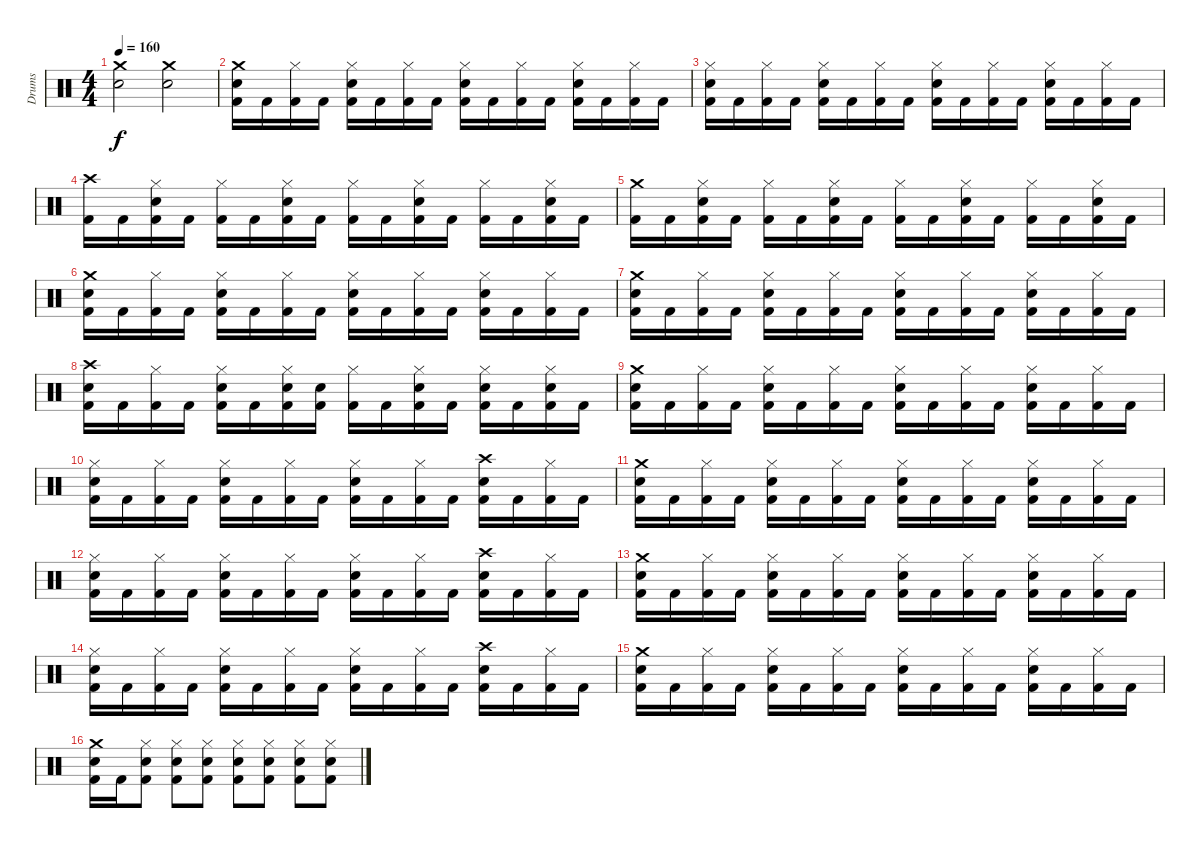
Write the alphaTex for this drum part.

\track ("Drums" "Drums") {instrument percussion}
\staff {score}
\articulation defaults
\ts (4 4)
\tempo 160
\clef neutral
\ks c
("Crash medium (hit)" "Snare (hit) 2").2{dy f} ("Crash medium (hit)" "Snare (hit) 2").2 |
("Crash medium (hit)" "Snare (hit) 2" "Kick (hit) 2").16 "Kick (hit) 2".16 ("Hi-Hat (closed)" "Kick (hit) 2").16 "Kick (hit) 2".16 ("Hi-Hat (closed)" "Snare (hit) 2" "Kick (hit) 2").16 "Kick (hit) 2".16 ("Hi-Hat (closed)" "Kick (hit) 2").16 "Kick (hit) 2".16 ("Hi-Hat (closed)" "Snare (hit) 2" "Kick (hit) 2").16 "Kick (hit) 2".16 ("Hi-Hat (closed)" "Kick (hit) 2").16 "Kick (hit) 2".16 ("Hi-Hat (closed)" "Snare (hit) 2" "Kick (hit) 2").16 "Kick (hit) 2".16 ("Hi-Hat (closed)" "Kick (hit) 2").16 "Kick (hit) 2".16 |
("Hi-Hat (closed)" "Snare (hit) 2" "Kick (hit) 2").16 "Kick (hit) 2".16 ("Hi-Hat (closed)" "Kick (hit) 2").16 "Kick (hit) 2".16 ("Hi-Hat (closed)" "Snare (hit) 2" "Kick (hit) 2").16 "Kick (hit) 2".16 ("Hi-Hat (closed)" "Kick (hit) 2").16 "Kick (hit) 2".16 ("Hi-Hat (closed)" "Snare (hit) 2" "Kick (hit) 2").16 "Kick (hit) 2".16 ("Hi-Hat (closed)" "Kick (hit) 2").16 "Kick (hit) 2".16 ("Hi-Hat (closed)" "Snare (hit) 2" "Kick (hit) 2").16 "Kick (hit) 2".16 ("Hi-Hat (closed)" "Kick (hit) 2").16 "Kick (hit) 2".16 |
("Crash high (hit)" "Kick (hit) 2").16 "Kick (hit) 2".16 ("Hi-Hat (closed)" "Snare (hit) 2" "Kick (hit) 2").16 "Kick (hit) 2".16 ("Hi-Hat (closed)" "Kick (hit) 2").16 "Kick (hit) 2".16 ("Hi-Hat (closed)" "Snare (hit) 2" "Kick (hit) 2").16 "Kick (hit) 2".16 ("Hi-Hat (closed)" "Kick (hit) 2").16 "Kick (hit) 2".16 ("Hi-Hat (closed)" "Snare (hit) 2" "Kick (hit) 2").16 "Kick (hit) 2".16 ("Hi-Hat (closed)" "Kick (hit) 2").16 "Kick (hit) 2".16 ("Hi-Hat (closed)" "Snare (hit) 2" "Kick (hit) 2").16 "Kick (hit) 2".16 |
("Crash medium (hit)" "Kick (hit) 2").16 "Kick (hit) 2".16 ("Hi-Hat (closed)" "Snare (hit) 2" "Kick (hit) 2").16 "Kick (hit) 2".16 ("Hi-Hat (closed)" "Kick (hit) 2").16 "Kick (hit) 2".16 ("Hi-Hat (closed)" "Snare (hit) 2" "Kick (hit) 2").16 "Kick (hit) 2".16 ("Hi-Hat (closed)" "Kick (hit) 2").16 "Kick (hit) 2".16 ("Hi-Hat (closed)" "Snare (hit) 2" "Kick (hit) 2").16 "Kick (hit) 2".16 ("Hi-Hat (closed)" "Kick (hit) 2").16 "Kick (hit) 2".16 ("Hi-Hat (closed)" "Snare (hit) 2" "Kick (hit) 2").16 "Kick (hit) 2".16 |
("Crash medium (hit)" "Snare (hit) 2" "Kick (hit) 2").16 "Kick (hit) 2".16 ("Hi-Hat (closed)" "Kick (hit) 2").16 "Kick (hit) 2".16 ("Hi-Hat (closed)" "Snare (hit) 2" "Kick (hit) 2").16 "Kick (hit) 2".16 ("Hi-Hat (closed)" "Kick (hit) 2").16 "Kick (hit) 2".16 ("Hi-Hat (closed)" "Snare (hit) 2" "Kick (hit) 2").16 "Kick (hit) 2".16 ("Hi-Hat (closed)" "Kick (hit) 2").16 "Kick (hit) 2".16 ("Hi-Hat (closed)" "Snare (hit) 2" "Kick (hit) 2").16 "Kick (hit) 2".16 ("Hi-Hat (closed)" "Kick (hit) 2").16 "Kick (hit) 2".16 |
("Crash medium (hit)" "Snare (hit) 2" "Kick (hit) 2").16 "Kick (hit) 2".16 ("Hi-Hat (closed)" "Kick (hit) 2").16 "Kick (hit) 2".16 ("Hi-Hat (closed)" "Snare (hit) 2" "Kick (hit) 2").16 "Kick (hit) 2".16 ("Hi-Hat (closed)" "Kick (hit) 2").16 "Kick (hit) 2".16 ("Hi-Hat (closed)" "Snare (hit) 2" "Kick (hit) 2").16 "Kick (hit) 2".16 ("Hi-Hat (closed)" "Kick (hit) 2").16 "Kick (hit) 2".16 ("Hi-Hat (closed)" "Snare (hit) 2" "Kick (hit) 2").16 "Kick (hit) 2".16 ("Hi-Hat (closed)" "Kick (hit) 2").16 "Kick (hit) 2".16 |
("Crash high (hit)" "Snare (hit) 2" "Kick (hit) 2").16 "Kick (hit) 2".16 ("Hi-Hat (closed)" "Kick (hit) 2").16 "Kick (hit) 2".16 ("Hi-Hat (closed)" "Snare (hit) 2" "Kick (hit) 2").16 "Kick (hit) 2".16 ("Hi-Hat (closed)" "Snare (hit) 2" "Kick (hit) 2").16 ("Snare (hit) 2" "Kick (hit) 2").16 ("Hi-Hat (closed)" "Kick (hit) 2").16 "Kick (hit) 2".16 ("Hi-Hat (closed)" "Snare (hit) 2" "Kick (hit) 2").16 "Kick (hit) 2".16 ("Hi-Hat (closed)" "Snare (hit) 2" "Kick (hit) 2").16 "Kick (hit) 2".16 ("Hi-Hat (closed)" "Snare (hit) 2" "Kick (hit) 2").16 "Kick (hit) 2".16 |
("Crash medium (hit)" "Snare (hit) 2" "Kick (hit) 2").16 "Kick (hit) 2".16 ("Hi-Hat (closed)" "Kick (hit) 2").16 "Kick (hit) 2".16 ("Hi-Hat (closed)" "Snare (hit) 2" "Kick (hit) 2").16 "Kick (hit) 2".16 ("Hi-Hat (closed)" "Kick (hit) 2").16 "Kick (hit) 2".16 ("Hi-Hat (closed)" "Snare (hit) 2" "Kick (hit) 2").16 "Kick (hit) 2".16 ("Hi-Hat (closed)" "Kick (hit) 2").16 "Kick (hit) 2".16 ("Hi-Hat (closed)" "Snare (hit) 2" "Kick (hit) 2").16 "Kick (hit) 2".16 ("Hi-Hat (closed)" "Kick (hit) 2").16 "Kick (hit) 2".16 |
("Hi-Hat (closed)" "Snare (hit) 2" "Kick (hit) 2").16 "Kick (hit) 2".16 ("Hi-Hat (closed)" "Kick (hit) 2").16 "Kick (hit) 2".16 ("Hi-Hat (closed)" "Snare (hit) 2" "Kick (hit) 2").16 "Kick (hit) 2".16 ("Hi-Hat (closed)" "Kick (hit) 2").16 "Kick (hit) 2".16 ("Hi-Hat (closed)" "Snare (hit) 2" "Kick (hit) 2").16 "Kick (hit) 2".16 ("Hi-Hat (closed)" "Kick (hit) 2").16 "Kick (hit) 2".16 ("Crash high (hit)" "Snare (hit) 2" "Kick (hit) 2").16 "Kick (hit) 2".16 ("Hi-Hat (closed)" "Kick (hit) 2").16 "Kick (hit) 2".16 |
("Crash medium (hit)" "Snare (hit) 2" "Kick (hit) 2").16 "Kick (hit) 2".16 ("Hi-Hat (closed)" "Kick (hit) 2").16 "Kick (hit) 2".16 ("Hi-Hat (closed)" "Snare (hit) 2" "Kick (hit) 2").16 "Kick (hit) 2".16 ("Hi-Hat (closed)" "Kick (hit) 2").16 "Kick (hit) 2".16 ("Hi-Hat (closed)" "Snare (hit) 2" "Kick (hit) 2").16 "Kick (hit) 2".16 ("Hi-Hat (closed)" "Kick (hit) 2").16 "Kick (hit) 2".16 ("Hi-Hat (closed)" "Snare (hit) 2" "Kick (hit) 2").16 "Kick (hit) 2".16 ("Hi-Hat (closed)" "Kick (hit) 2").16 "Kick (hit) 2".16 |
("Hi-Hat (closed)" "Snare (hit) 2" "Kick (hit) 2").16 "Kick (hit) 2".16 ("Hi-Hat (closed)" "Kick (hit) 2").16 "Kick (hit) 2".16 ("Hi-Hat (closed)" "Snare (hit) 2" "Kick (hit) 2").16 "Kick (hit) 2".16 ("Hi-Hat (closed)" "Kick (hit) 2").16 "Kick (hit) 2".16 ("Hi-Hat (closed)" "Snare (hit) 2" "Kick (hit) 2").16 "Kick (hit) 2".16 ("Hi-Hat (closed)" "Kick (hit) 2").16 "Kick (hit) 2".16 ("Crash high (hit)" "Snare (hit) 2" "Kick (hit) 2").16 "Kick (hit) 2".16 ("Hi-Hat (closed)" "Kick (hit) 2").16 "Kick (hit) 2".16 |
("Crash medium (hit)" "Snare (hit) 2" "Kick (hit) 2").16 "Kick (hit) 2".16 ("Hi-Hat (closed)" "Kick (hit) 2").16 "Kick (hit) 2".16 ("Hi-Hat (closed)" "Snare (hit) 2" "Kick (hit) 2").16 "Kick (hit) 2".16 ("Hi-Hat (closed)" "Kick (hit) 2").16 "Kick (hit) 2".16 ("Hi-Hat (closed)" "Snare (hit) 2" "Kick (hit) 2").16 "Kick (hit) 2".16 ("Hi-Hat (closed)" "Kick (hit) 2").16 "Kick (hit) 2".16 ("Hi-Hat (closed)" "Snare (hit) 2" "Kick (hit) 2").16 "Kick (hit) 2".16 ("Hi-Hat (closed)" "Kick (hit) 2").16 "Kick (hit) 2".16 |
("Hi-Hat (closed)" "Snare (hit) 2" "Kick (hit) 2").16 "Kick (hit) 2".16 ("Hi-Hat (closed)" "Kick (hit) 2").16 "Kick (hit) 2".16 ("Hi-Hat (closed)" "Snare (hit) 2" "Kick (hit) 2").16 "Kick (hit) 2".16 ("Hi-Hat (closed)" "Kick (hit) 2").16 "Kick (hit) 2".16 ("Hi-Hat (closed)" "Snare (hit) 2" "Kick (hit) 2").16 "Kick (hit) 2".16 ("Hi-Hat (closed)" "Kick (hit) 2").16 "Kick (hit) 2".16 ("Crash high (hit)" "Snare (hit) 2" "Kick (hit) 2").16 "Kick (hit) 2".16 ("Hi-Hat (closed)" "Kick (hit) 2").16 "Kick (hit) 2".16 |
("Crash medium (hit)" "Snare (hit) 2" "Kick (hit) 2").16 "Kick (hit) 2".16 ("Hi-Hat (closed)" "Kick (hit) 2").16 "Kick (hit) 2".16 ("Hi-Hat (closed)" "Snare (hit) 2" "Kick (hit) 2").16 "Kick (hit) 2".16 ("Hi-Hat (closed)" "Kick (hit) 2").16 "Kick (hit) 2".16 ("Hi-Hat (closed)" "Snare (hit) 2" "Kick (hit) 2").16 "Kick (hit) 2".16 ("Hi-Hat (closed)" "Kick (hit) 2").16 "Kick (hit) 2".16 ("Hi-Hat (closed)" "Snare (hit) 2" "Kick (hit) 2").16 "Kick (hit) 2".16 ("Hi-Hat (closed)" "Kick (hit) 2").16 "Kick (hit) 2".16 |
("Crash medium (hit)" "Snare (hit) 2" "Kick (hit) 2").16 "Kick (hit) 2".16 ("Hi-Hat (closed)" "Snare (hit) 2" "Kick (hit) 2").8 ("Hi-Hat (closed)" "Snare (hit) 2" "Kick (hit) 2").8 ("Hi-Hat (closed)" "Snare (hit) 2" "Kick (hit) 2").8 ("Hi-Hat (closed)" "Snare (hit) 2" "Kick (hit) 2").8 ("Hi-Hat (closed)" "Snare (hit) 2" "Kick (hit) 2").8 ("Hi-Hat (closed)" "Snare (hit) 2" "Kick (hit) 2").8 ("Hi-Hat (closed)" "Snare (hit) 2" "Kick (hit) 2").8
